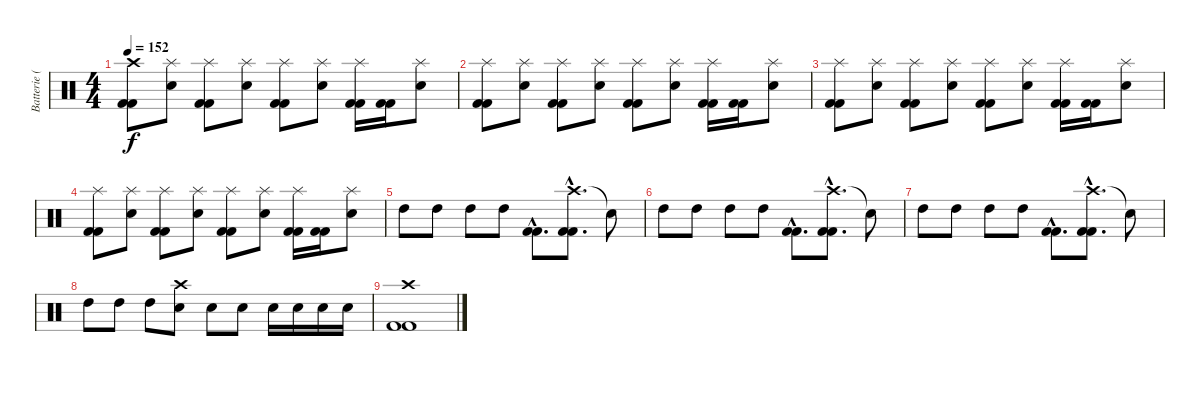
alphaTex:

\track ("Batterie (Ben Graves)" "Batterie (") {instrument percussion}
\staff {score}
\articulation defaults
\ts (4 4)
\tempo 152
\clef neutral
\ks c
("Crash high (hit)" "Kick (hit) 2" "Kick (hit) 2").8{dy f} ("Splash (hit)" "Electric Snare (hit)").8 ("Splash (hit)" "Kick (hit) 2" "Kick (hit) 2").8 ("Splash (hit)" "Electric Snare (hit)").8 ("Splash (hit)" "Kick (hit) 2" "Kick (hit) 2").8 ("Splash (hit)" "Electric Snare (hit)").8 ("Splash (hit)" "Kick (hit) 2" "Kick (hit) 2").16 ("Kick (hit) 2" "Kick (hit) 2").16 ("Splash (hit)" "Electric Snare (hit)").8 |
("Splash (hit)" "Kick (hit) 2" "Kick (hit) 2").8 ("Splash (hit)" "Electric Snare (hit)").8 ("Splash (hit)" "Kick (hit) 2" "Kick (hit) 2").8 ("Splash (hit)" "Electric Snare (hit)").8 ("Splash (hit)" "Kick (hit) 2" "Kick (hit) 2").8 ("Splash (hit)" "Electric Snare (hit)").8 ("Splash (hit)" "Kick (hit) 2" "Kick (hit) 2").16 ("Kick (hit) 2" "Kick (hit) 2").16 ("Splash (hit)" "Electric Snare (hit)").8 |
("Splash (hit)" "Kick (hit) 2" "Kick (hit) 2").8 ("Splash (hit)" "Electric Snare (hit)").8 ("Splash (hit)" "Kick (hit) 2" "Kick (hit) 2").8 ("Splash (hit)" "Electric Snare (hit)").8 ("Splash (hit)" "Kick (hit) 2" "Kick (hit) 2").8 ("Splash (hit)" "Electric Snare (hit)").8 ("Splash (hit)" "Kick (hit) 2" "Kick (hit) 2").16 ("Kick (hit) 2" "Kick (hit) 2").16 ("Splash (hit)" "Electric Snare (hit)").8 |
("Splash (hit)" "Kick (hit) 2" "Kick (hit) 2").8 ("Splash (hit)" "Electric Snare (hit)").8 ("Splash (hit)" "Kick (hit) 2" "Kick (hit) 2").8 ("Splash (hit)" "Electric Snare (hit)").8 ("Splash (hit)" "Kick (hit) 2" "Kick (hit) 2").8 ("Splash (hit)" "Electric Snare (hit)").8 ("Splash (hit)" "Kick (hit) 2" "Kick (hit) 2").16 ("Kick (hit) 2" "Kick (hit) 2").16 ("Splash (hit)" "Electric Snare (hit)").8 |
"High Tom (hit)".8 "High Tom (hit)".8 "High Tom (hit)".8 "High Tom (hit)".8 ("Kick (hit) 2"{hac} "Kick (hit) 2"{hac}).8{d} ("Crash high (hit)"{hac} "Kick (hit) 2"{hac} "Kick (hit) 2"{hac}).8{d} "Snare (hit)"{t}.8 |
"High Tom (hit)".8 "High Tom (hit)".8 "High Tom (hit)".8 "High Tom (hit)".8 ("Kick (hit) 2"{hac} "Kick (hit) 2"{hac}).8{d} ("Crash high (hit)"{hac} "Kick (hit) 2"{hac} "Kick (hit) 2"{hac}).8{d} "Snare (hit)"{t}.8 |
"High Tom (hit)".8 "High Tom (hit)".8 "High Tom (hit)".8 "High Tom (hit)".8 ("Kick (hit) 2"{hac} "Kick (hit) 2"{hac}).8{d} ("Crash high (hit)"{hac} "Kick (hit) 2"{hac} "Kick (hit) 2"{hac}).8{d} "Snare (hit)"{t}.8 |
"High Tom (hit)".8 "High Tom (hit)".8 "High Tom (hit)".8 ("Crash high (hit)" "Electric Snare (hit)").8 "Electric Snare (hit)".8 "Electric Snare (hit)".8 "Electric Snare (hit)".16 "Electric Snare (hit)".16 "Electric Snare (hit)".16 "Electric Snare (hit)".16 |
("Crash high (hit)" "Kick (hit) 2" "Kick (hit) 2").1
